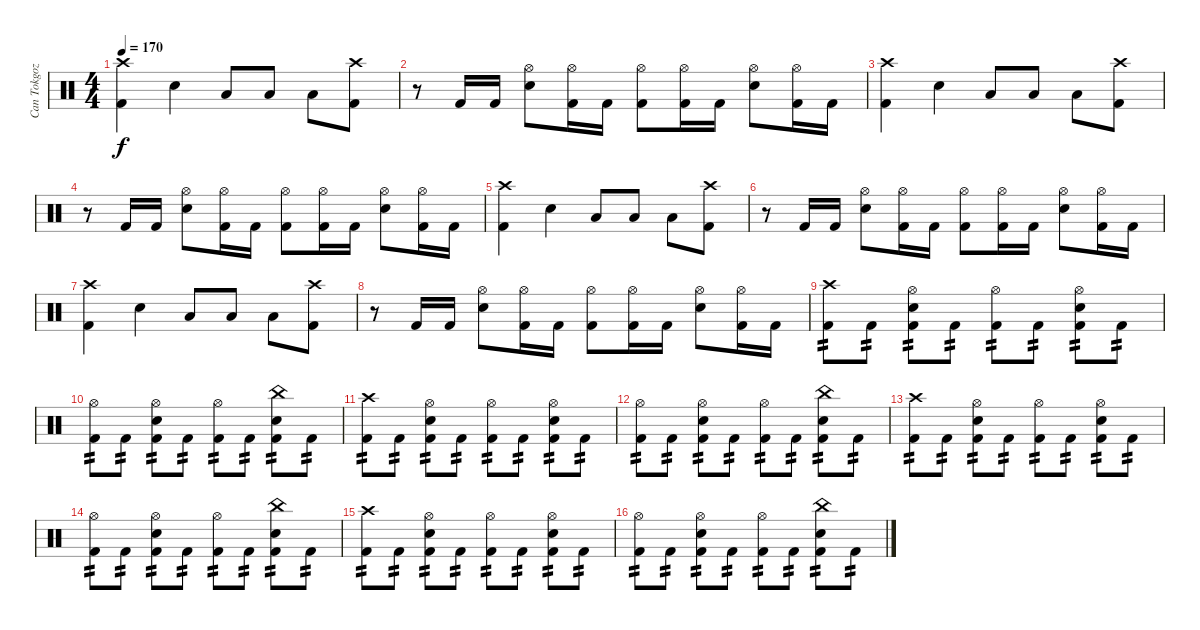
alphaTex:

\track ("Can Tokgoz" "Can Tokgoz") {instrument percussion}
\staff {score}
\articulation defaults
\ts (4 4)
\tempo 170
\clef neutral
\ks c
("Crash high (hit)" "Kick (hit) 2").4{dy f} "Snare (hit) 2".4 "Low Tom (hit)".8 "Low Tom (hit)".8 "Low Tom (hit)".8 ("Crash high (hit)" "Kick (hit) 2").8 |
r.8 "Kick (hit) 2".16 "Kick (hit) 2".16 ("Hi-Hat (open)" "Snare (hit) 2").8 ("Hi-Hat (open)" "Kick (hit) 2").16 "Kick (hit) 2".16 ("Hi-Hat (open)" "Kick (hit) 2").8 ("Hi-Hat (open)" "Kick (hit) 2").16 "Kick (hit) 2".16 ("Hi-Hat (open)" "Snare (hit) 2").8 ("Hi-Hat (open)" "Kick (hit) 2").16 "Kick (hit) 2".16 |
("Crash high (hit)" "Kick (hit) 2").4 "Snare (hit) 2".4 "Low Tom (hit)".8 "Low Tom (hit)".8 "Low Tom (hit)".8 ("Crash high (hit)" "Kick (hit) 2").8 |
r.8 "Kick (hit) 2".16 "Kick (hit) 2".16 ("Hi-Hat (open)" "Snare (hit) 2").8 ("Hi-Hat (open)" "Kick (hit) 2").16 "Kick (hit) 2".16 ("Hi-Hat (open)" "Kick (hit) 2").8 ("Hi-Hat (open)" "Kick (hit) 2").16 "Kick (hit) 2".16 ("Hi-Hat (open)" "Snare (hit) 2").8 ("Hi-Hat (open)" "Kick (hit) 2").16 "Kick (hit) 2".16 |
("Crash high (hit)" "Kick (hit) 2").4 "Snare (hit) 2".4 "Low Tom (hit)".8 "Low Tom (hit)".8 "Low Tom (hit)".8 ("Crash high (hit)" "Kick (hit) 2").8 |
r.8 "Kick (hit) 2".16 "Kick (hit) 2".16 ("Hi-Hat (open)" "Snare (hit) 2").8 ("Hi-Hat (open)" "Kick (hit) 2").16 "Kick (hit) 2".16 ("Hi-Hat (open)" "Kick (hit) 2").8 ("Hi-Hat (open)" "Kick (hit) 2").16 "Kick (hit) 2".16 ("Hi-Hat (open)" "Snare (hit) 2").8 ("Hi-Hat (open)" "Kick (hit) 2").16 "Kick (hit) 2".16 |
("Crash high (hit)" "Kick (hit) 2").4 "Snare (hit) 2".4 "Low Tom (hit)".8 "Low Tom (hit)".8 "Low Tom (hit)".8 ("Crash high (hit)" "Kick (hit) 2").8 |
r.8 "Kick (hit) 2".16 "Kick (hit) 2".16 ("Hi-Hat (open)" "Snare (hit) 2").8 ("Hi-Hat (open)" "Kick (hit) 2").16 "Kick (hit) 2".16 ("Hi-Hat (open)" "Kick (hit) 2").8 ("Hi-Hat (open)" "Kick (hit) 2").16 "Kick (hit) 2".16 ("Hi-Hat (open)" "Snare (hit) 2").8 ("Hi-Hat (open)" "Kick (hit) 2").16 "Kick (hit) 2".16 |
("Crash high (hit)" "Kick (hit) 2").8{tp 2} "Kick (hit) 2".8{tp 2} ("Hi-Hat (open)" "Snare (hit) 2" "Kick (hit) 2").8{tp 2} "Kick (hit) 2".8{tp 2} ("Hi-Hat (open)" "Kick (hit) 2").8{tp 2} "Kick (hit) 2".8{tp 2} ("Hi-Hat (open)" "Snare (hit) 2" "Kick (hit) 2").8{tp 2} "Kick (hit) 2".8{tp 2} |
("Hi-Hat (open)" "Kick (hit) 2").8{tp 2} "Kick (hit) 2".8{tp 2} ("Hi-Hat (open)" "Snare (hit) 2" "Kick (hit) 2").8{tp 2} "Kick (hit) 2".8{tp 2} ("Hi-Hat (open)" "Kick (hit) 2").8{tp 2} "Kick (hit) 2".8{tp 2} ("China (hit)" "Snare (hit) 2" "Kick (hit) 2").8{tp 2} "Kick (hit) 2".8{tp 2} |
("Crash high (hit)" "Kick (hit) 2").8{tp 2} "Kick (hit) 2".8{tp 2} ("Hi-Hat (open)" "Snare (hit) 2" "Kick (hit) 2").8{tp 2} "Kick (hit) 2".8{tp 2} ("Hi-Hat (open)" "Kick (hit) 2").8{tp 2} "Kick (hit) 2".8{tp 2} ("Hi-Hat (open)" "Snare (hit) 2" "Kick (hit) 2").8{tp 2} "Kick (hit) 2".8{tp 2} |
("Hi-Hat (open)" "Kick (hit) 2").8{tp 2} "Kick (hit) 2".8{tp 2} ("Hi-Hat (open)" "Snare (hit) 2" "Kick (hit) 2").8{tp 2} "Kick (hit) 2".8{tp 2} ("Hi-Hat (open)" "Kick (hit) 2").8{tp 2} "Kick (hit) 2".8{tp 2} ("China (hit)" "Snare (hit) 2" "Kick (hit) 2").8{tp 2} "Kick (hit) 2".8{tp 2} |
("Crash high (hit)" "Kick (hit) 2").8{tp 2} "Kick (hit) 2".8{tp 2} ("Hi-Hat (open)" "Snare (hit) 2" "Kick (hit) 2").8{tp 2} "Kick (hit) 2".8{tp 2} ("Hi-Hat (open)" "Kick (hit) 2").8{tp 2} "Kick (hit) 2".8{tp 2} ("Hi-Hat (open)" "Snare (hit) 2" "Kick (hit) 2").8{tp 2} "Kick (hit) 2".8{tp 2} |
("Hi-Hat (open)" "Kick (hit) 2").8{tp 2} "Kick (hit) 2".8{tp 2} ("Hi-Hat (open)" "Snare (hit) 2" "Kick (hit) 2").8{tp 2} "Kick (hit) 2".8{tp 2} ("Hi-Hat (open)" "Kick (hit) 2").8{tp 2} "Kick (hit) 2".8{tp 2} ("China (hit)" "Snare (hit) 2" "Kick (hit) 2").8{tp 2} "Kick (hit) 2".8{tp 2} |
("Crash high (hit)" "Kick (hit) 2").8{tp 2} "Kick (hit) 2".8{tp 2} ("Hi-Hat (open)" "Snare (hit) 2" "Kick (hit) 2").8{tp 2} "Kick (hit) 2".8{tp 2} ("Hi-Hat (open)" "Kick (hit) 2").8{tp 2} "Kick (hit) 2".8{tp 2} ("Hi-Hat (open)" "Snare (hit) 2" "Kick (hit) 2").8{tp 2} "Kick (hit) 2".8{tp 2} |
("Hi-Hat (open)" "Kick (hit) 2").8{tp 2} "Kick (hit) 2".8{tp 2} ("Hi-Hat (open)" "Snare (hit) 2" "Kick (hit) 2").8{tp 2} "Kick (hit) 2".8{tp 2} ("Hi-Hat (open)" "Kick (hit) 2").8{tp 2} "Kick (hit) 2".8{tp 2} ("China (hit)" "Snare (hit) 2" "Kick (hit) 2").8{tp 2} "Kick (hit) 2".8{tp 2}
